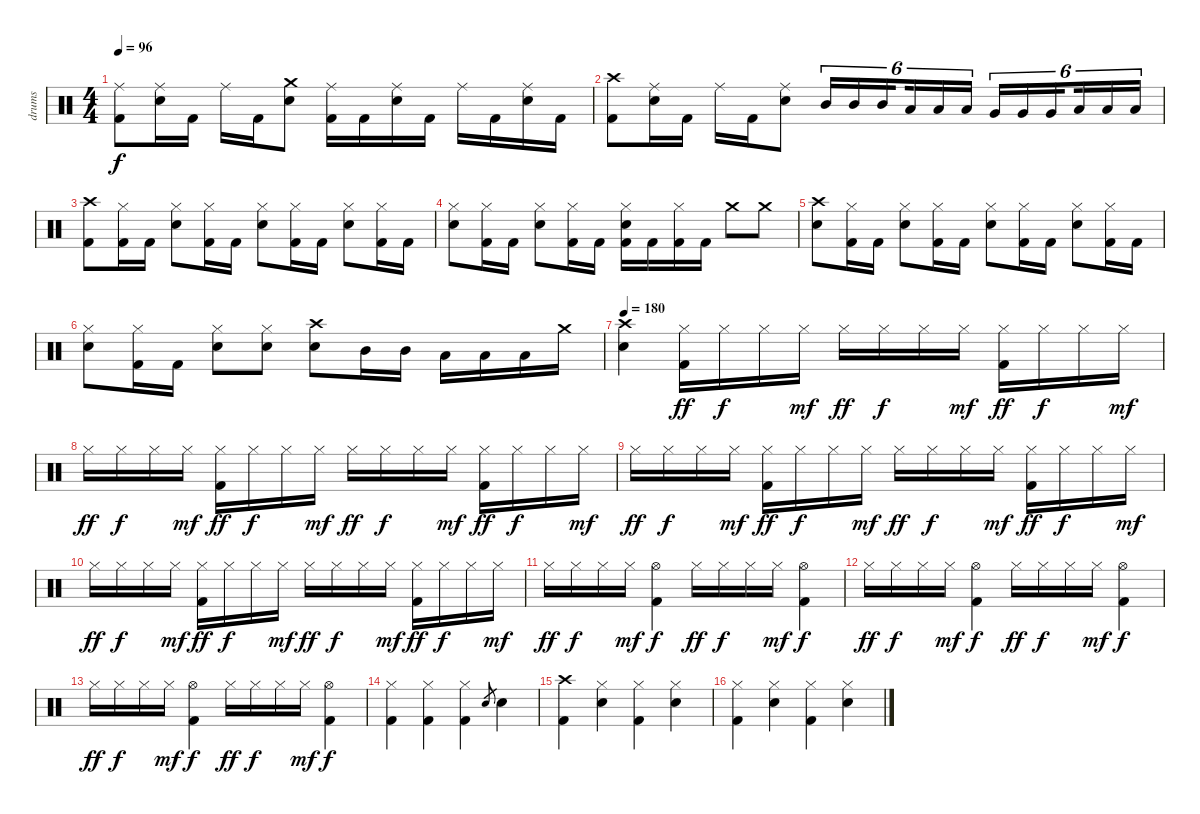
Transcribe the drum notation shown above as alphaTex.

\track ("drums" "drums") {instrument percussion}
\staff {score}
\articulation defaults
\ts (4 4)
\tempo 96
\clef neutral
\ks c
("Ride (middle)" "Kick (hit) 2").8{dy f} ("Ride (middle)" "Electric Snare (hit)").16 "Kick (hit) 2".16 "Ride (middle)".16 "Kick (hit) 2".16 ("Crash medium (hit)" "Electric Snare (hit)").8 ("Ride (middle)" "Kick (hit) 2").16 "Kick (hit) 2".16 ("Ride (middle)" "Electric Snare (hit)").16 "Kick (hit) 2".16 "Ride (middle)".16 "Kick (hit) 2".16 ("Ride (middle)" "Electric Snare (hit)").16 "Kick (hit) 2".16 |
("Crash high (hit)" "Kick (hit) 2").8 ("Ride (middle)" "Electric Snare (hit)").16 "Kick (hit) 2".16 "Ride (middle)".16 "Kick (hit) 2".16 ("Ride (middle)" "Electric Snare (hit)").8 "Mid Tom (hit)".16{tu (6 4)} "Mid Tom (hit)".16{tu (6 4)} "Mid Tom (hit)".16{tu (6 4) beam splitsecondary} "Low Tom (hit)".16{tu (6 4)} "Low Tom (hit)".16{tu (6 4)} "Low Tom (hit)".16{tu (6 4)} "Very Low Tom (hit)".16{tu (6 4)} "Very Low Tom (hit)".16{tu (6 4)} "Very Low Tom (hit)".16{tu (6 4) beam splitsecondary} "Low Floor Tom (hit)".16{tu (6 4)} "Low Floor Tom (hit)".16{tu (6 4)} "Low Floor Tom (hit)".16{tu (6 4)} |
("Crash high (hit)" "Kick (hit) 2").8 ("Hi-Hat (closed)" "Kick (hit) 2").16 "Kick (hit) 2".16 ("Hi-Hat (closed)" "Electric Snare (hit)").8 ("Hi-Hat (closed)" "Kick (hit) 2").16 "Kick (hit) 2".16 ("Hi-Hat (closed)" "Electric Snare (hit)").8 ("Hi-Hat (closed)" "Kick (hit) 2").16 "Kick (hit) 2".16 ("Hi-Hat (closed)" "Electric Snare (hit)").8 ("Hi-Hat (closed)" "Kick (hit) 2").16 "Kick (hit) 2".16 |
("Hi-Hat (closed)" "Electric Snare (hit)").8 ("Hi-Hat (closed)" "Kick (hit) 2").16 "Kick (hit) 2".16 ("Hi-Hat (closed)" "Electric Snare (hit)").8 ("Hi-Hat (closed)" "Kick (hit) 2").16 "Kick (hit) 2".16 ("Hi-Hat (closed)" "Electric Snare (hit)" "Kick (hit) 2").16 "Kick (hit) 2".16 ("Hi-Hat (closed)" "Kick (hit) 2").16 "Kick (hit) 2".16 "Crash medium (hit)".8 "Crash medium (hit)".8 |
("Crash high (hit)" "Electric Snare (hit)").8 ("Hi-Hat (closed)" "Kick (hit) 2").16 "Kick (hit) 2".16 ("Hi-Hat (closed)" "Electric Snare (hit)").8 ("Hi-Hat (closed)" "Kick (hit) 2").16 "Kick (hit) 2".16 ("Hi-Hat (closed)" "Electric Snare (hit)").8 ("Hi-Hat (closed)" "Kick (hit) 2").16 "Kick (hit) 2".16 ("Hi-Hat (closed)" "Electric Snare (hit)").8 ("Hi-Hat (closed)" "Kick (hit) 2").16 "Kick (hit) 2".16 |
("Hi-Hat (closed)" "Electric Snare (hit)").8 ("Hi-Hat (closed)" "Kick (hit) 2").16 "Kick (hit) 2".16 ("Hi-Hat (closed)" "Electric Snare (hit)").8 ("Hi-Hat (closed)" "Electric Snare (hit)").8 ("Crash high (hit)" "Electric Snare (hit)").8 "Mid Tom (hit)".16 "Mid Tom (hit)".16 "Low Tom (hit)".16 "Low Tom (hit)".16 "Low Tom (hit)".16 "Crash medium (hit)".16 |
\tempo 180
("Crash high (hit)" "Electric Snare (hit)").4 ("Hi-Hat (closed)" "Kick (hit) 2").16{dy ff} "Hi-Hat (closed)".16{dy f} "Hi-Hat (closed)".16 "Hi-Hat (closed)".16{dy mf} "Hi-Hat (closed)".16{dy ff} "Hi-Hat (closed)".16{dy f} "Hi-Hat (closed)".16 "Hi-Hat (closed)".16{dy mf} ("Hi-Hat (closed)" "Kick (hit) 2").16{dy ff} "Hi-Hat (closed)".16{dy f} "Hi-Hat (closed)".16 "Hi-Hat (closed)".16{dy mf} |
"Hi-Hat (closed)".16{dy ff} "Hi-Hat (closed)".16{dy f} "Hi-Hat (closed)".16 "Hi-Hat (closed)".16{dy mf} ("Hi-Hat (closed)" "Kick (hit) 2").16{dy ff} "Hi-Hat (closed)".16{dy f} "Hi-Hat (closed)".16 "Hi-Hat (closed)".16{dy mf} "Hi-Hat (closed)".16{dy ff} "Hi-Hat (closed)".16{dy f} "Hi-Hat (closed)".16 "Hi-Hat (closed)".16{dy mf} ("Hi-Hat (closed)" "Kick (hit) 2").16{dy ff} "Hi-Hat (closed)".16{dy f} "Hi-Hat (closed)".16 "Hi-Hat (closed)".16{dy mf} |
"Hi-Hat (closed)".16{dy ff} "Hi-Hat (closed)".16{dy f} "Hi-Hat (closed)".16 "Hi-Hat (closed)".16{dy mf} ("Hi-Hat (closed)" "Kick (hit) 2").16{dy ff} "Hi-Hat (closed)".16{dy f} "Hi-Hat (closed)".16 "Hi-Hat (closed)".16{dy mf} "Hi-Hat (closed)".16{dy ff} "Hi-Hat (closed)".16{dy f} "Hi-Hat (closed)".16 "Hi-Hat (closed)".16{dy mf} ("Hi-Hat (closed)" "Kick (hit) 2").16{dy ff} "Hi-Hat (closed)".16{dy f} "Hi-Hat (closed)".16 "Hi-Hat (closed)".16{dy mf} |
"Hi-Hat (closed)".16{dy ff} "Hi-Hat (closed)".16{dy f} "Hi-Hat (closed)".16 "Hi-Hat (closed)".16{dy mf} ("Hi-Hat (closed)" "Kick (hit) 2").16{dy ff} "Hi-Hat (closed)".16{dy f} "Hi-Hat (closed)".16 "Hi-Hat (closed)".16{dy mf} "Hi-Hat (closed)".16{dy ff} "Hi-Hat (closed)".16{dy f} "Hi-Hat (closed)".16 "Hi-Hat (closed)".16{dy mf} ("Hi-Hat (closed)" "Kick (hit) 2").16{dy ff} "Hi-Hat (closed)".16{dy f} "Hi-Hat (closed)".16 "Hi-Hat (closed)".16{dy mf} |
"Hi-Hat (closed)".16{dy ff} "Hi-Hat (closed)".16{dy f} "Hi-Hat (closed)".16 "Hi-Hat (closed)".16{dy mf} ("Hi-Hat (open)" "Kick (hit) 2").4{dy f} "Hi-Hat (closed)".16{dy ff} "Hi-Hat (closed)".16{dy f} "Hi-Hat (closed)".16 "Hi-Hat (closed)".16{dy mf} ("Hi-Hat (open)" "Kick (hit) 2").4{dy f} |
"Hi-Hat (closed)".16{dy ff} "Hi-Hat (closed)".16{dy f} "Hi-Hat (closed)".16 "Hi-Hat (closed)".16{dy mf} ("Hi-Hat (open)" "Kick (hit) 2").4{dy f} "Hi-Hat (closed)".16{dy ff} "Hi-Hat (closed)".16{dy f} "Hi-Hat (closed)".16 "Hi-Hat (closed)".16{dy mf} ("Hi-Hat (open)" "Kick (hit) 2").4{dy f} |
"Hi-Hat (closed)".16{dy ff} "Hi-Hat (closed)".16{dy f} "Hi-Hat (closed)".16 "Hi-Hat (closed)".16{dy mf} ("Hi-Hat (open)" "Kick (hit) 2").4{dy f} "Hi-Hat (closed)".16{dy ff} "Hi-Hat (closed)".16{dy f} "Hi-Hat (closed)".16 "Hi-Hat (closed)".16{dy mf} ("Hi-Hat (open)" "Kick (hit) 2").4{dy f} |
("Hi-Hat (closed)" "Kick (hit) 2").4 ("Hi-Hat (closed)" "Kick (hit) 2").4 ("Hi-Hat (closed)" "Kick (hit) 2").4 "Electric Snare (hit)".8{gr} "Electric Snare (hit)".4 |
("Crash high (hit)" "Kick (hit) 2").4 ("Hi-Hat (closed)" "Electric Snare (hit)").4 ("Hi-Hat (closed)" "Kick (hit) 2").4 ("Hi-Hat (closed)" "Electric Snare (hit)").4 |
("Hi-Hat (closed)" "Kick (hit) 2").4 ("Hi-Hat (closed)" "Electric Snare (hit)").4 ("Hi-Hat (closed)" "Kick (hit) 2").4 ("Hi-Hat (closed)" "Electric Snare (hit)").4
